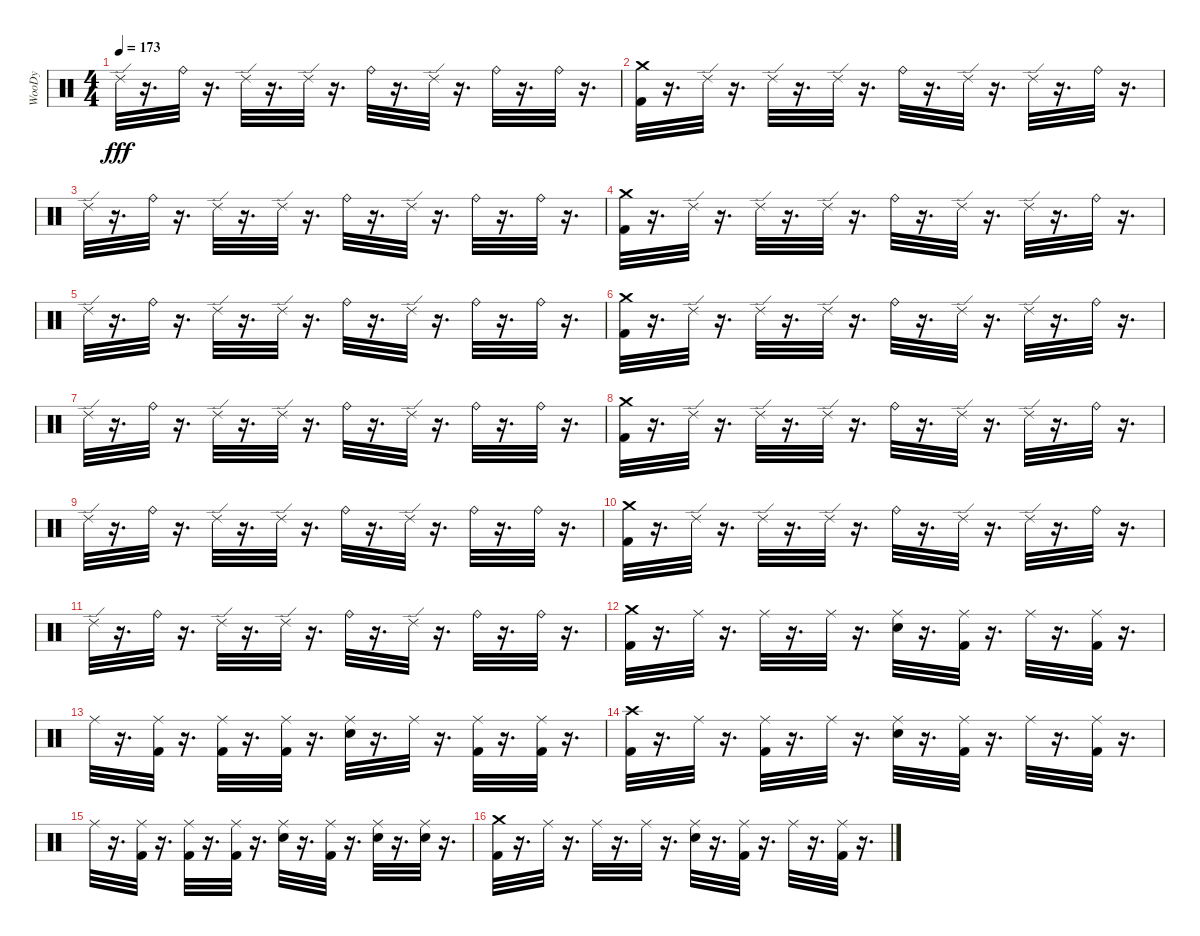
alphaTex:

\track ("WooDy" "WooDy") {instrument percussion}
\staff {score}
\articulation defaults
\ts (4 4)
\tempo 173
\clef neutral
\ks c "Ride (edge) 2".32{dy fff}
r.16{d} "Ride (bell)".32 r.16{d} "Ride (edge) 2".32 r.16{d} "Ride (edge) 2".32 r.16{d} "Ride (bell)".32 r.16{d} "Ride (edge) 2".32 r.16{d} "Ride (bell)".32 r.16{d} "Ride (bell)".32 r.16{d} |
("Kick (hit) 2" "Crash medium (hit)").32 r.16{d} "Ride (edge) 2".32 r.16{d} "Ride (edge) 2".32 r.16{d} "Ride (edge) 2".32 r.16{d} "Ride (bell)".32 r.16{d} "Ride (edge) 2".32 r.16{d} "Ride (edge) 2".32 r.16{d} "Ride (bell)".32 r.16{d} |
"Ride (edge) 2".32 r.16{d} "Ride (bell)".32 r.16{d} "Ride (edge) 2".32 r.16{d} "Ride (edge) 2".32 r.16{d} "Ride (bell)".32 r.16{d} "Ride (edge) 2".32 r.16{d} "Ride (bell)".32 r.16{d} "Ride (bell)".32 r.16{d} |
("Kick (hit) 2" "Crash medium (hit)").32 r.16{d} "Ride (edge) 2".32 r.16{d} "Ride (edge) 2".32 r.16{d} "Ride (edge) 2".32 r.16{d} "Ride (bell)".32 r.16{d} "Ride (edge) 2".32 r.16{d} "Ride (edge) 2".32 r.16{d} "Ride (bell)".32 r.16{d} |
"Ride (edge) 2".32 r.16{d} "Ride (bell)".32 r.16{d} "Ride (edge) 2".32 r.16{d} "Ride (edge) 2".32 r.16{d} "Ride (bell)".32 r.16{d} "Ride (edge) 2".32 r.16{d} "Ride (bell)".32 r.16{d} "Ride (bell)".32 r.16{d} |
("Kick (hit) 2" "Crash medium (hit)").32 r.16{d} "Ride (edge) 2".32 r.16{d} "Ride (edge) 2".32 r.16{d} "Ride (edge) 2".32 r.16{d} "Ride (bell)".32 r.16{d} "Ride (edge) 2".32 r.16{d} "Ride (edge) 2".32 r.16{d} "Ride (bell)".32 r.16{d} |
"Ride (edge) 2".32 r.16{d} "Ride (bell)".32 r.16{d} "Ride (edge) 2".32 r.16{d} "Ride (edge) 2".32 r.16{d} "Ride (bell)".32 r.16{d} "Ride (edge) 2".32 r.16{d} "Ride (bell)".32 r.16{d} "Ride (bell)".32 r.16{d} |
("Kick (hit) 2" "Crash medium (hit)").32 r.16{d} "Ride (edge) 2".32 r.16{d} "Ride (edge) 2".32 r.16{d} "Ride (edge) 2".32 r.16{d} "Ride (bell)".32 r.16{d} "Ride (edge) 2".32 r.16{d} "Ride (edge) 2".32 r.16{d} "Ride (bell)".32 r.16{d} |
"Ride (edge) 2".32 r.16{d} "Ride (bell)".32 r.16{d} "Ride (edge) 2".32 r.16{d} "Ride (edge) 2".32 r.16{d} "Ride (bell)".32 r.16{d} "Ride (edge) 2".32 r.16{d} "Ride (bell)".32 r.16{d} "Ride (bell)".32 r.16{d} |
("Kick (hit) 2" "Crash medium (hit)").32 r.16{d} "Ride (edge) 2".32 r.16{d} "Ride (edge) 2".32 r.16{d} "Ride (edge) 2".32 r.16{d} "Ride (bell)".32 r.16{d} "Ride (edge) 2".32 r.16{d} "Ride (edge) 2".32 r.16{d} "Ride (bell)".32 r.16{d} |
"Ride (edge) 2".32 r.16{d} "Ride (bell)".32 r.16{d} "Ride (edge) 2".32 r.16{d} "Ride (edge) 2".32 r.16{d} "Ride (bell)".32 r.16{d} "Ride (edge) 2".32 r.16{d} "Ride (bell)".32 r.16{d} "Ride (bell)".32 r.16{d} |
("Kick (hit) 2" "Crash medium (hit)").32 r.16{d} "Ride (middle)".32 r.16{d} "Ride (middle)".32 r.16{d} "Ride (middle)".32 r.16{d} ("Electric Snare (hit)" "Ride (middle)").32 r.16{d} ("Kick (hit) 2" "Ride (middle)").32 r.16{d} "Ride (middle)".32 r.16{d} ("Kick (hit) 2" "Ride (middle)").32 r.16{d} |
"Ride (middle)".32 r.16{d} ("Kick (hit) 2" "Ride (middle)").32 r.16{d} ("Kick (hit) 2" "Ride (middle)").32 r.16{d} ("Kick (hit) 2" "Ride (middle)").32 r.16{d} ("Electric Snare (hit)" "Ride (middle)").32 r.16{d} "Ride (middle)".32 r.16{d} ("Kick (hit) 2" "Ride (middle)").32 r.16{d} ("Kick (hit) 2" "Ride (middle)").32 r.16{d} |
("Kick (hit) 2" "Crash high (hit)").32 r.16{d} "Ride (middle)".32 r.16{d} ("Kick (hit) 2" "Ride (middle)").32 r.16{d} "Ride (middle)".32 r.16{d} ("Electric Snare (hit)" "Ride (middle)").32 r.16{d} ("Kick (hit) 2" "Ride (middle)").32 r.16{d} "Ride (middle)".32 r.16{d} ("Kick (hit) 2" "Ride (middle)").32 r.16{d} |
"Ride (middle)".32 r.16{d} ("Kick (hit) 2" "Ride (middle)").32 r.16{d} ("Kick (hit) 2" "Ride (middle)").32 r.16{d} ("Kick (hit) 2" "Ride (middle)").32 r.16{d} ("Electric Snare (hit)" "Ride (middle)").32 r.16{d} ("Kick (hit) 2" "Ride (middle)").32 r.16{d} ("Electric Snare (hit)" "Ride (middle)").32 r.16{d} ("Electric Snare (hit)" "Ride (middle)").32 r.16{d} |
("Kick (hit) 2" "Crash medium (hit)").32 r.16{d} "Ride (middle)".32 r.16{d} "Ride (middle)".32 r.16{d} "Ride (middle)".32 r.16{d} ("Electric Snare (hit)" "Ride (middle)").32 r.16{d} ("Kick (hit) 2" "Ride (middle)").32 r.16{d} "Ride (middle)".32 r.16{d} ("Kick (hit) 2" "Ride (middle)").32 r.16{d}
